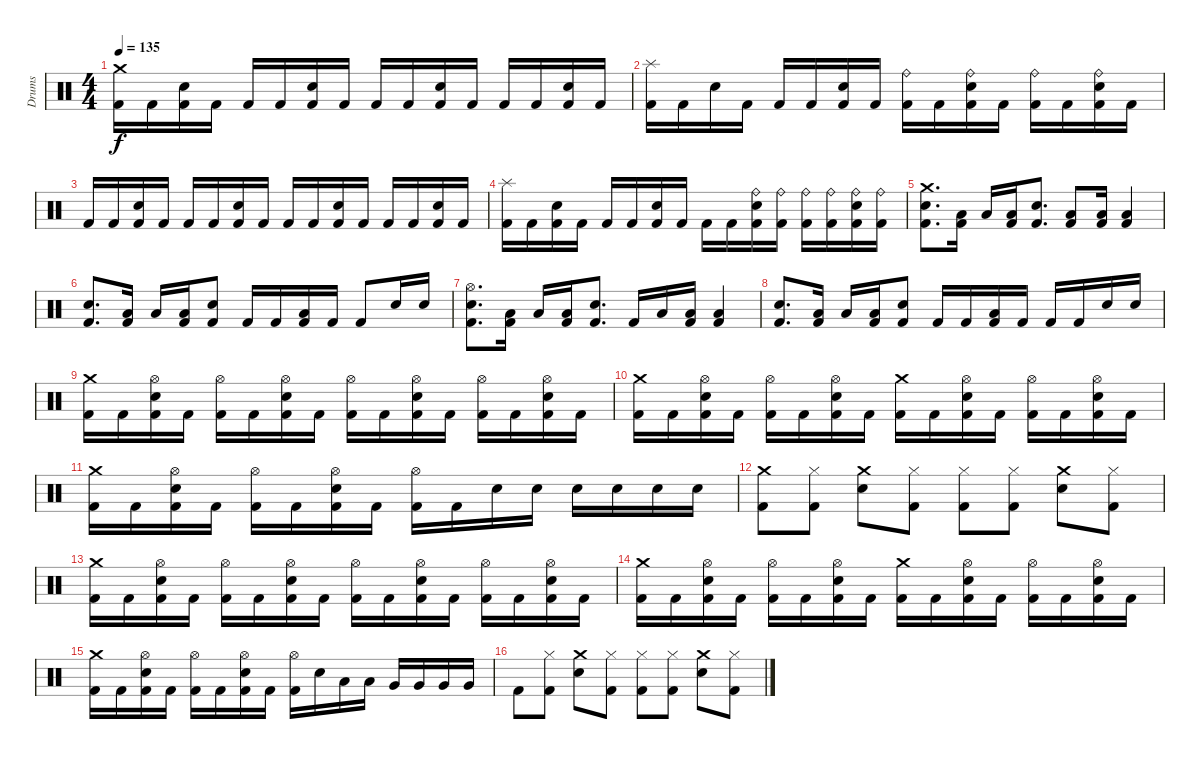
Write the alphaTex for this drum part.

\track ("Drums" "Drums") {instrument percussion}
\staff {score}
\articulation defaults
\ts (4 4)
\tempo 135
\clef neutral
\ks c
("Crash medium (hit)" "Kick (hit) 2").16{dy f} "Kick (hit) 2".16 ("Electric Snare (hit)" "Kick (hit) 2").16 "Kick (hit) 2".16 "Kick (hit) 2".16 "Kick (hit) 2".16 ("Electric Snare (hit)" "Kick (hit) 2").16 "Kick (hit) 2".16 "Kick (hit) 2".16 "Kick (hit) 2".16 ("Electric Snare (hit)" "Kick (hit) 2").16 "Kick (hit) 2".16 "Kick (hit) 2".16 "Kick (hit) 2".16 ("Electric Snare (hit)" "Kick (hit) 2").16 "Kick (hit) 2".16 |
("Splash (hit)" "Kick (hit) 2").16 "Kick (hit) 2".16 "Electric Snare (hit)".16 "Kick (hit) 2".16 "Kick (hit) 2".16 "Kick (hit) 2".16 ("Electric Snare (hit)" "Kick (hit) 2").16 "Kick (hit) 2".16 ("Ride (bell)" "Kick (hit) 2").16 "Kick (hit) 2".16 ("Ride (bell)" "Electric Snare (hit)" "Kick (hit) 2").16 "Kick (hit) 2".16 ("Ride (bell)" "Kick (hit) 2").16 "Kick (hit) 2".16 ("Ride (bell)" "Electric Snare (hit)" "Kick (hit) 2").16 "Kick (hit) 2".16 |
"Kick (hit) 2".16 "Kick (hit) 2".16 ("Electric Snare (hit)" "Kick (hit) 2").16 "Kick (hit) 2".16 "Kick (hit) 2".16 "Kick (hit) 2".16 ("Electric Snare (hit)" "Kick (hit) 2").16 "Kick (hit) 2".16 "Kick (hit) 2".16 "Kick (hit) 2".16 ("Electric Snare (hit)" "Kick (hit) 2").16 "Kick (hit) 2".16 "Kick (hit) 2".16 "Kick (hit) 2".16 ("Electric Snare (hit)" "Kick (hit) 2").16 "Kick (hit) 2".16 |
("Splash (hit)" "Kick (hit) 2").16 "Kick (hit) 2".16 ("Electric Snare (hit)" "Kick (hit) 2").16 "Kick (hit) 2".16 "Kick (hit) 2".16 "Kick (hit) 2".16 ("Electric Snare (hit)" "Kick (hit) 2").16 "Kick (hit) 2".16 "Kick (hit) 2".16 "Kick (hit) 2".16 ("Ride (bell)" "Electric Snare (hit)" "Kick (hit) 2").16 ("Ride (bell)" "Kick (hit) 2").16 ("Ride (bell)" "Kick (hit) 2").16 ("Ride (bell)" "Kick (hit) 2").16 ("Ride (bell)" "Electric Snare (hit)" "Kick (hit) 2").16 ("Ride (bell)" "Kick (hit) 2").16 |
("Crash medium (hit)" "Electric Snare (hit)" "Kick (hit) 2").8{d} ("Low Floor Tom (hit)" "Kick (hit) 2").16 "Low Floor Tom (hit)".16 ("Low Floor Tom (hit)" "Kick (hit) 2").16 ("Electric Snare (hit)" "Kick (hit) 2").8{d} ("Low Floor Tom (hit)" "Kick (hit) 2").8 ("Low Floor Tom (hit)" "Kick (hit) 2").16 ("Low Floor Tom (hit)" "Kick (hit) 2").4 |
("Electric Snare (hit)" "Kick (hit) 2").8{d} ("Low Floor Tom (hit)" "Kick (hit) 2").16 "Low Floor Tom (hit)".16 ("Low Floor Tom (hit)" "Kick (hit) 2").16 ("Electric Snare (hit)" "Kick (hit) 2").8 "Kick (hit) 2".16 "Kick (hit) 2".16 ("Low Floor Tom (hit)" "Kick (hit) 2").16 "Kick (hit) 2".16 "Kick (hit) 2".8 "Electric Snare (hit)".16 "Electric Snare (hit)".16 |
("Hi-Hat (open)" "Electric Snare (hit)" "Kick (hit) 2").8{d} ("Low Floor Tom (hit)" "Kick (hit) 2").16 "Low Floor Tom (hit)".16 ("Low Floor Tom (hit)" "Kick (hit) 2").16 ("Electric Snare (hit)" "Kick (hit) 2").8{d} "Kick (hit) 2".16 "Low Floor Tom (hit)".16 ("Low Floor Tom (hit)" "Kick (hit) 2").16 ("Low Floor Tom (hit)" "Kick (hit) 2").4 |
("Electric Snare (hit)" "Kick (hit) 2").8{d} ("Low Floor Tom (hit)" "Kick (hit) 2").16 "Low Floor Tom (hit)".16 ("Low Floor Tom (hit)" "Kick (hit) 2").16 ("Electric Snare (hit)" "Kick (hit) 2").8 "Kick (hit) 2".16 "Kick (hit) 2".16 ("Low Floor Tom (hit)" "Kick (hit) 2").16 "Kick (hit) 2".16 "Kick (hit) 2".16 "Kick (hit) 2".16 "Electric Snare (hit)".16 "Electric Snare (hit)".16 |
("Crash medium (hit)" "Kick (hit) 2").16 "Kick (hit) 2".16 ("Hi-Hat (open)" "Electric Snare (hit)" "Kick (hit) 2").16 "Kick (hit) 2".16 ("Hi-Hat (open)" "Kick (hit) 2").16 "Kick (hit) 2".16 ("Hi-Hat (open)" "Electric Snare (hit)" "Kick (hit) 2").16 "Kick (hit) 2".16 ("Hi-Hat (open)" "Kick (hit) 2").16 "Kick (hit) 2".16 ("Hi-Hat (open)" "Electric Snare (hit)" "Kick (hit) 2").16 "Kick (hit) 2".16 ("Hi-Hat (open)" "Kick (hit) 2").16 "Kick (hit) 2".16 ("Hi-Hat (open)" "Electric Snare (hit)" "Kick (hit) 2").16 "Kick (hit) 2".16 |
("Crash medium (hit)" "Kick (hit) 2").16 "Kick (hit) 2".16 ("Hi-Hat (open)" "Electric Snare (hit)" "Kick (hit) 2").16 "Kick (hit) 2".16 ("Hi-Hat (open)" "Kick (hit) 2").16 "Kick (hit) 2".16 ("Hi-Hat (open)" "Electric Snare (hit)" "Kick (hit) 2").16 "Kick (hit) 2".16 ("Crash medium (hit)" "Kick (hit) 2").16 "Kick (hit) 2".16 ("Hi-Hat (open)" "Electric Snare (hit)" "Kick (hit) 2").16 "Kick (hit) 2".16 ("Hi-Hat (open)" "Kick (hit) 2").16 "Kick (hit) 2".16 ("Hi-Hat (open)" "Electric Snare (hit)" "Kick (hit) 2").16 "Kick (hit) 2".16 |
("Crash medium (hit)" "Kick (hit) 2").16 "Kick (hit) 2".16 ("Hi-Hat (open)" "Electric Snare (hit)" "Kick (hit) 2").16 "Kick (hit) 2".16 ("Hi-Hat (open)" "Kick (hit) 2").16 "Kick (hit) 2".16 ("Hi-Hat (open)" "Electric Snare (hit)" "Kick (hit) 2").16 "Kick (hit) 2".16 ("Hi-Hat (open)" "Kick (hit) 2").16 "Kick (hit) 2".16 "Electric Snare (hit)".16 "Electric Snare (hit)".16 "Electric Snare (hit)".16 "Electric Snare (hit)".16 "Electric Snare (hit)".16 "Electric Snare (hit)".16 |
("Crash medium (hit)" "Kick (hit) 2").8 ("Hi-Hat (closed)" "Kick (hit) 2").8 ("Crash medium (hit)" "Electric Snare (hit)").8 ("Hi-Hat (closed)" "Kick (hit) 2").8 ("Hi-Hat (closed)" "Kick (hit) 2").8 ("Hi-Hat (closed)" "Kick (hit) 2").8 ("Crash medium (hit)" "Electric Snare (hit)").8 ("Hi-Hat (closed)" "Kick (hit) 2").8 |
("Crash medium (hit)" "Kick (hit) 2").16 "Kick (hit) 2".16 ("Hi-Hat (open)" "Electric Snare (hit)" "Kick (hit) 2").16 "Kick (hit) 2".16 ("Hi-Hat (open)" "Kick (hit) 2").16 "Kick (hit) 2".16 ("Hi-Hat (open)" "Electric Snare (hit)" "Kick (hit) 2").16 "Kick (hit) 2".16 ("Hi-Hat (open)" "Kick (hit) 2").16 "Kick (hit) 2".16 ("Hi-Hat (open)" "Electric Snare (hit)" "Kick (hit) 2").16 "Kick (hit) 2".16 ("Hi-Hat (open)" "Kick (hit) 2").16 "Kick (hit) 2".16 ("Hi-Hat (open)" "Electric Snare (hit)" "Kick (hit) 2").16 "Kick (hit) 2".16 |
("Crash medium (hit)" "Kick (hit) 2").16 "Kick (hit) 2".16 ("Hi-Hat (open)" "Electric Snare (hit)" "Kick (hit) 2").16 "Kick (hit) 2".16 ("Hi-Hat (open)" "Kick (hit) 2").16 "Kick (hit) 2".16 ("Hi-Hat (open)" "Electric Snare (hit)" "Kick (hit) 2").16 "Kick (hit) 2".16 ("Crash medium (hit)" "Kick (hit) 2").16 "Kick (hit) 2".16 ("Hi-Hat (open)" "Electric Snare (hit)" "Kick (hit) 2").16 "Kick (hit) 2".16 ("Hi-Hat (open)" "Kick (hit) 2").16 "Kick (hit) 2".16 ("Hi-Hat (open)" "Electric Snare (hit)" "Kick (hit) 2").16 "Kick (hit) 2".16 |
("Crash medium (hit)" "Kick (hit) 2").16 "Kick (hit) 2".16 ("Hi-Hat (open)" "Electric Snare (hit)" "Kick (hit) 2").16 "Kick (hit) 2".16 ("Hi-Hat (open)" "Kick (hit) 2").16 "Kick (hit) 2".16 ("Hi-Hat (open)" "Electric Snare (hit)" "Kick (hit) 2").16 "Kick (hit) 2".16 ("Hi-Hat (open)" "Kick (hit) 2").16 "Electric Snare (hit)".16 "Low Tom (hit)".16 "Low Tom (hit)".16 "Very Low Tom (hit)".16 "Very Low Tom (hit)".16 "Very Low Tom (hit)".16 "Very Low Tom (hit)".16 |
"Kick (hit) 2".8 ("Hi-Hat (closed)" "Kick (hit) 2").8 ("Crash medium (hit)" "Electric Snare (hit)").8 ("Hi-Hat (closed)" "Kick (hit) 2").8 ("Hi-Hat (closed)" "Kick (hit) 2").8 ("Hi-Hat (closed)" "Kick (hit) 2").8 ("Crash medium (hit)" "Electric Snare (hit)").8 ("Hi-Hat (closed)" "Kick (hit) 2").8
